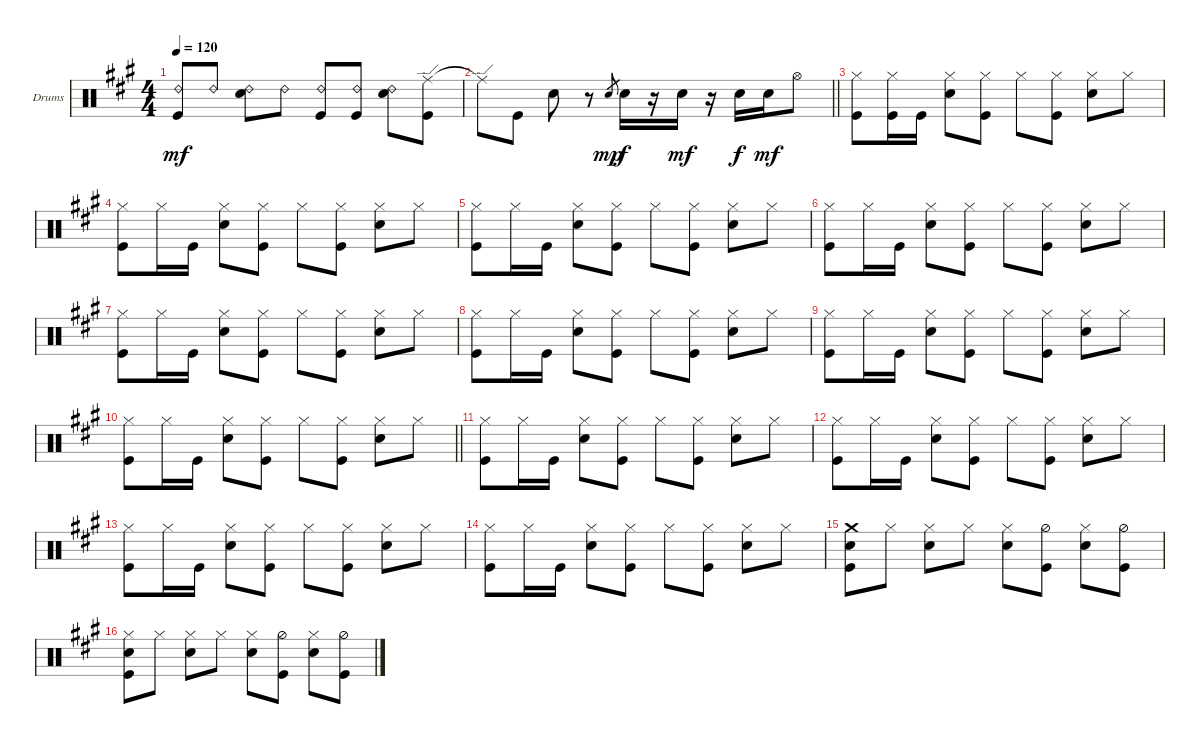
\bracketExtendMode groupsimilarinstruments
\firstSystemTrackNameOrientation horizontal
\otherSystemsTrackNameOrientation horizontal
\track ("Drumkit" "Drums") {instrument percussion}
\staff {score}
\articulation defaults
\ts (4 4)
\tempo 120
\clef neutral
\ks a
("Kick (hit)" "Ride (bell) 2").8{dy mf} "Ride (bell) 2".8 ("Ride (bell) 2" "Snare (hit) 2").8 "Ride (bell) 2".8 ("Ride (bell) 2" "Kick (hit)").8 ("Ride (bell) 2" "Kick (hit)").8 ("Ride (bell) 2" "Snare (hit) 2").8 ("Ride (edge)" "Kick (hit)").8 |
\barLineRight lightlight "Ride (edge)"{t}.8 "Kick (hit)".8 "Snare (hit) 2".8
r.8 "Snare (hit) 2".8{gr dy mp} "Snare (hit) 2".16{dy f} r.16 "Snare (hit) 2".16{dy mf} r.16 "Snare (hit) 2".16{dy f} "Snare (hit) 2".16{dy mf} "Hi-Hat (open)".8 |
("Kick (hit)" "Hi-Hat (closed)").8 ("Hi-Hat (closed)" "Kick (hit)").16 "Kick (hit)".16 ("Snare (hit) 2" "Hi-Hat (closed)").8 ("Kick (hit)" "Hi-Hat (closed)").8 "Hi-Hat (closed)".8 ("Hi-Hat (closed)" "Kick (hit)").8 ("Hi-Hat (closed)" "Snare (hit) 2").8 "Hi-Hat (closed)".8 |
("Kick (hit)" "Hi-Hat (closed)").8 "Hi-Hat (closed)".16 "Kick (hit)".16 ("Snare (hit) 2" "Hi-Hat (closed)").8 ("Kick (hit)" "Hi-Hat (closed)").8 "Hi-Hat (closed)".8 ("Hi-Hat (closed)" "Kick (hit)").8 ("Hi-Hat (closed)" "Snare (hit) 2").8 "Hi-Hat (closed)".8 |
("Kick (hit)" "Hi-Hat (closed)").8 "Hi-Hat (closed)".16 "Kick (hit)".16 ("Snare (hit) 2" "Hi-Hat (closed)").8 ("Kick (hit)" "Hi-Hat (closed)").8 "Hi-Hat (closed)".8 ("Hi-Hat (closed)" "Kick (hit)").8 ("Hi-Hat (closed)" "Snare (hit) 2").8 "Hi-Hat (closed)".8 |
("Kick (hit)" "Hi-Hat (closed)").8 "Hi-Hat (closed)".16 "Kick (hit)".16 ("Snare (hit) 2" "Hi-Hat (closed)").8 ("Kick (hit)" "Hi-Hat (closed)").8 "Hi-Hat (closed)".8 ("Hi-Hat (closed)" "Kick (hit)").8 ("Hi-Hat (closed)" "Snare (hit) 2").8 "Hi-Hat (closed)".8 |
("Kick (hit)" "Hi-Hat (closed)").8 "Hi-Hat (closed)".16 "Kick (hit)".16 ("Snare (hit) 2" "Hi-Hat (closed)").8 ("Kick (hit)" "Hi-Hat (closed)").8 "Hi-Hat (closed)".8 ("Hi-Hat (closed)" "Kick (hit)").8 ("Hi-Hat (closed)" "Snare (hit) 2").8 "Hi-Hat (closed)".8 |
("Kick (hit)" "Hi-Hat (closed)").8 "Hi-Hat (closed)".16 "Kick (hit)".16 ("Snare (hit) 2" "Hi-Hat (closed)").8 ("Kick (hit)" "Hi-Hat (closed)").8 "Hi-Hat (closed)".8 ("Hi-Hat (closed)" "Kick (hit)").8 ("Hi-Hat (closed)" "Snare (hit) 2").8 "Hi-Hat (closed)".8 |
("Kick (hit)" "Hi-Hat (closed)").8 "Hi-Hat (closed)".16 "Kick (hit)".16 ("Snare (hit) 2" "Hi-Hat (closed)").8 ("Kick (hit)" "Hi-Hat (closed)").8 "Hi-Hat (closed)".8 ("Hi-Hat (closed)" "Kick (hit)").8 ("Hi-Hat (closed)" "Snare (hit) 2").8 "Hi-Hat (closed)".8 |
\barLineRight lightlight
("Kick (hit)" "Hi-Hat (closed)").8 "Hi-Hat (closed)".16 "Kick (hit)".16 ("Snare (hit) 2" "Hi-Hat (closed)").8 ("Kick (hit)" "Hi-Hat (closed)").8 "Hi-Hat (closed)".8 ("Hi-Hat (closed)" "Kick (hit)").8 ("Hi-Hat (closed)" "Snare (hit) 2").8 "Hi-Hat (closed)".8 |
("Kick (hit)" "Hi-Hat (closed)").8 "Hi-Hat (closed)".16 "Kick (hit)".16 ("Snare (hit) 2" "Hi-Hat (closed)").8 ("Kick (hit)" "Hi-Hat (closed)").8 "Hi-Hat (closed)".8 ("Hi-Hat (closed)" "Kick (hit)").8 ("Hi-Hat (closed)" "Snare (hit) 2").8 "Hi-Hat (closed)".8 |
("Kick (hit)" "Hi-Hat (closed)").8 "Hi-Hat (closed)".16 "Kick (hit)".16 ("Snare (hit) 2" "Hi-Hat (closed)").8 ("Kick (hit)" "Hi-Hat (closed)").8 "Hi-Hat (closed)".8 ("Hi-Hat (closed)" "Kick (hit)").8 ("Hi-Hat (closed)" "Snare (hit) 2").8 "Hi-Hat (closed)".8 |
("Kick (hit)" "Hi-Hat (closed)").8 "Hi-Hat (closed)".16 "Kick (hit)".16 ("Snare (hit) 2" "Hi-Hat (closed)").8 ("Kick (hit)" "Hi-Hat (closed)").8 "Hi-Hat (closed)".8 ("Hi-Hat (closed)" "Kick (hit)").8 ("Hi-Hat (closed)" "Snare (hit) 2").8 "Hi-Hat (closed)".8 |
("Kick (hit)" "Hi-Hat (closed)").8 "Hi-Hat (closed)".16 "Kick (hit)".16 ("Snare (hit) 2" "Hi-Hat (closed)").8 ("Kick (hit)" "Hi-Hat (closed)").8 "Hi-Hat (closed)".8 ("Hi-Hat (closed)" "Kick (hit)").8 ("Hi-Hat (closed)" "Snare (hit) 2").8 "Hi-Hat (closed)".8 |
("Snare (hit) 2" "Kick (hit)" "Crash medium (hit)").8 "Hi-Hat (closed)".8 ("Snare (hit) 2" "Hi-Hat (closed)").8 "Hi-Hat (closed)".8 ("Snare (hit) 2" "Hi-Hat (closed)").8 ("Kick (hit)" "Hi-Hat (half)").8 ("Snare (hit) 2" "Hi-Hat (closed)").8 ("Kick (hit)" "Hi-Hat (half)").8 |
("Snare (hit) 2" "Kick (hit)" "Hi-Hat (closed)").8 "Hi-Hat (closed)".8 ("Snare (hit) 2" "Hi-Hat (closed)").8 "Hi-Hat (closed)".8 ("Snare (hit) 2" "Hi-Hat (closed)").8 ("Kick (hit)" "Hi-Hat (half)").8 ("Snare (hit) 2" "Hi-Hat (closed)").8 ("Kick (hit)" "Hi-Hat (half)").8
